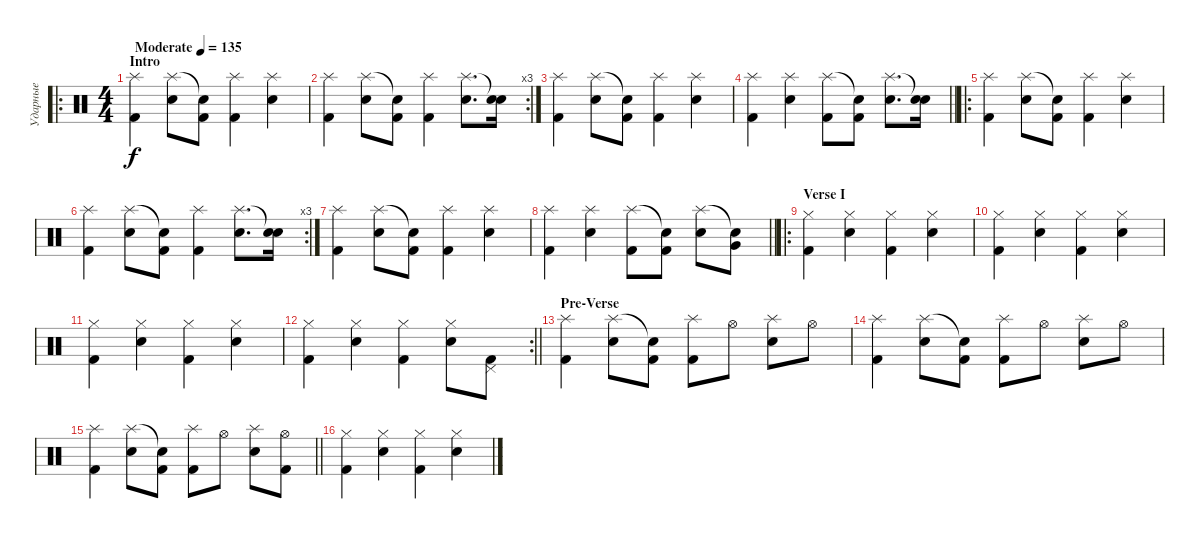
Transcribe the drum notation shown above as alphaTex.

\track ("Ударные" "Ударные") {instrument percussion}
\staff {score}
\articulation defaults
\ro
\ts (4 4)
\section ("" "Intro")
\tempo (135 "Moderate")
\clef neutral
\ks c
("Splash (hit)" "Kick (hit) 2").4{dy f} ("Splash (hit)" "Electric Snare (hit)").8 ("Snare (hit)"{t} "Kick (hit) 2").8 ("Splash (hit)" "Kick (hit) 2").4 ("Splash (hit)" "Electric Snare (hit)").4 |
\rc 3
("Splash (hit)" "Kick (hit) 2").4 ("Splash (hit)" "Electric Snare (hit)").8 ("Snare (hit)"{t} "Kick (hit) 2").8 ("Splash (hit)" "Kick (hit) 2").4 ("Splash (hit)" "Electric Snare (hit)").8{d} ("Snare (hit)"{t} "Electric Snare (hit)").16 |
("Splash (hit)" "Kick (hit) 2").4 ("Splash (hit)" "Electric Snare (hit)").8 ("Snare (hit)"{t} "Kick (hit) 2").8 ("Splash (hit)" "Kick (hit) 2").4 ("Splash (hit)" "Electric Snare (hit)").4 |
\barLineRight lightlight
("Splash (hit)" "Kick (hit) 2").4 ("Splash (hit)" "Electric Snare (hit)").4 ("Splash (hit)" "Kick (hit) 2").8 ("Snare (hit)"{t} "Kick (hit) 2").8 ("Splash (hit)" "Electric Snare (hit)").8{d} ("Snare (hit)"{t} "Electric Snare (hit)").16 |
\ro
\section ("" "")
("Splash (hit)" "Kick (hit) 2").4 ("Splash (hit)" "Electric Snare (hit)").8 ("Snare (hit)"{t} "Kick (hit) 2").8 ("Splash (hit)" "Kick (hit) 2").4 ("Splash (hit)" "Electric Snare (hit)").4 |
\rc 3
("Splash (hit)" "Kick (hit) 2").4 ("Splash (hit)" "Electric Snare (hit)").8 ("Snare (hit)"{t} "Kick (hit) 2").8 ("Splash (hit)" "Kick (hit) 2").4 ("Splash (hit)" "Electric Snare (hit)").8{d} ("Snare (hit)"{t} "Electric Snare (hit)").16 |
("Splash (hit)" "Kick (hit) 2").4 ("Splash (hit)" "Electric Snare (hit)").8 ("Snare (hit)"{t} "Kick (hit) 2").8 ("Splash (hit)" "Kick (hit) 2").4 ("Splash (hit)" "Electric Snare (hit)").4 |
\barLineRight lightlight
("Splash (hit)" "Kick (hit) 2").4 ("Splash (hit)" "Electric Snare (hit)").4 ("Splash (hit)" "Kick (hit) 2").8 ("Snare (hit)"{t} "Kick (hit) 2").8 ("Splash (hit)" "Electric Snare (hit)").8 ("Snare (hit)"{t} "Very Low Tom (hit)").8 |
\ro
\section ("" "Verse I")
("Hi-Hat (closed)" "Kick (hit) 2").4 ("Hi-Hat (closed)" "Electric Snare (hit)").4 ("Hi-Hat (closed)" "Kick (hit) 2").4 ("Hi-Hat (closed)" "Electric Snare (hit)").4 |
("Hi-Hat (closed)" "Kick (hit) 2").4 ("Hi-Hat (closed)" "Electric Snare (hit)").4 ("Hi-Hat (closed)" "Kick (hit) 2").4 ("Hi-Hat (closed)" "Electric Snare (hit)").4 |
("Hi-Hat (closed)" "Kick (hit) 2").4 ("Hi-Hat (closed)" "Electric Snare (hit)").4 ("Hi-Hat (closed)" "Kick (hit) 2").4 ("Hi-Hat (closed)" "Electric Snare (hit)").4 |
\rc 2
\barLineRight lightlight
("Hi-Hat (closed)" "Kick (hit) 2").4 ("Hi-Hat (closed)" "Electric Snare (hit)").4 ("Hi-Hat (closed)" "Kick (hit) 2").4 ("Hi-Hat (closed)" "Electric Snare (hit)").8 ("Pedal Hi-Hat (hit)" "Kick (hit) 2").8 |
\section ("" "Pre-Verse")
("Splash (hit)" "Kick (hit) 2").4 ("Splash (hit)" "Electric Snare (hit)").8 ("Snare (hit)"{t} "Kick (hit) 2").8 ("Splash (hit)" "Kick (hit) 2").8 "Hi-Hat (open)".8 ("Splash (hit)" "Electric Snare (hit)").8 "Hi-Hat (open)".8 |
("Splash (hit)" "Kick (hit) 2").4 ("Splash (hit)" "Electric Snare (hit)").8 ("Snare (hit)"{t} "Kick (hit) 2").8 ("Splash (hit)" "Kick (hit) 2").8 "Hi-Hat (open)".8 ("Splash (hit)" "Electric Snare (hit)").8 "Hi-Hat (open)".8 |
\barLineRight lightlight
("Splash (hit)" "Kick (hit) 2").4 ("Splash (hit)" "Electric Snare (hit)").8 ("Snare (hit)"{t} "Kick (hit) 2").8 ("Splash (hit)" "Kick (hit) 2").8 "Hi-Hat (open)".8 ("Splash (hit)" "Electric Snare (hit)").8 ("Hi-Hat (open)" "Kick (hit) 2").8 |
\section ("" "")
("Hi-Hat (closed)" "Kick (hit) 2").4 ("Hi-Hat (closed)" "Electric Snare (hit)").4 ("Hi-Hat (closed)" "Kick (hit) 2").4 ("Hi-Hat (closed)" "Electric Snare (hit)").4
